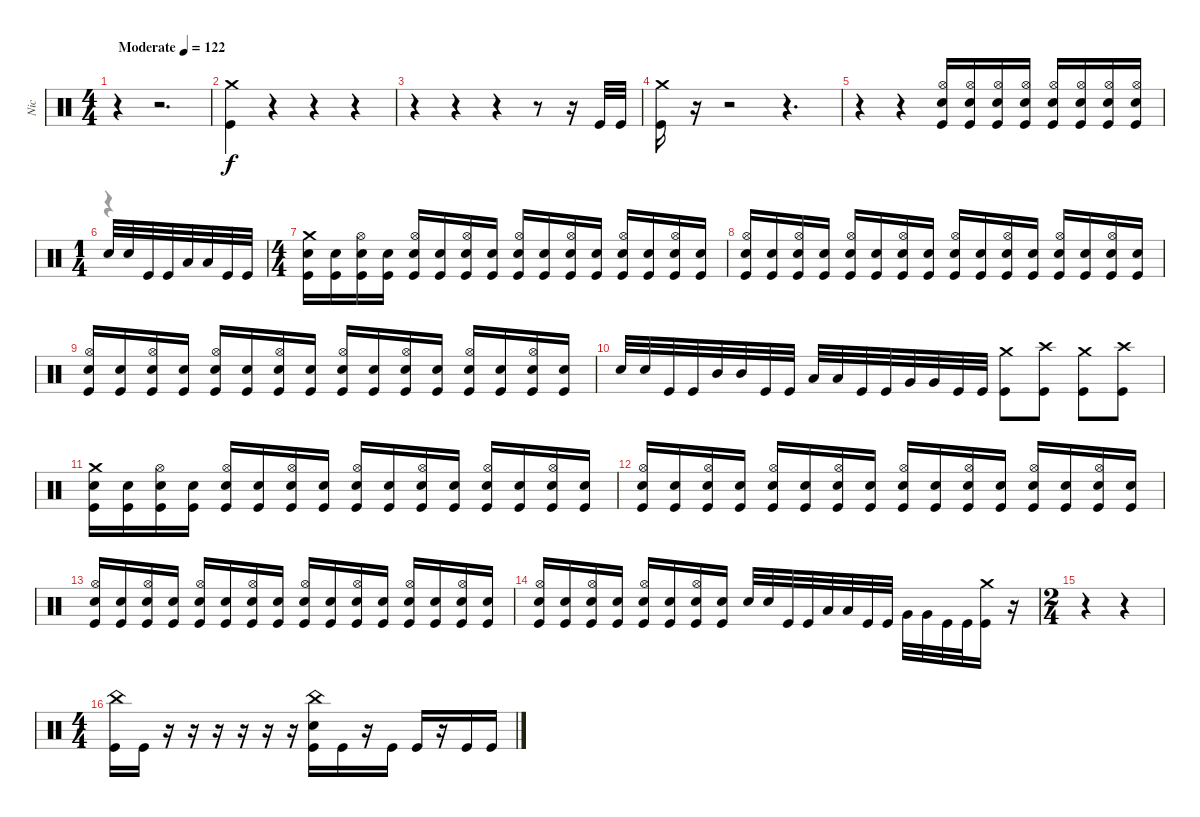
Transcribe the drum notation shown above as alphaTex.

\track ("Nic" "Nic") {instrument percussion}
\staff {score}
\articulation defaults
\voice
\ts (4 4)
\tempo (122 "Moderate")
\clef neutral
\ks c
r.4{dy f} r.2{d} |
("Crash medium (hit)" "Kick (hit)").4 r.4 r.4 r.4 |
r.4 r.4 r.4 r.8 r.16 "Kick (hit)".32 "Kick (hit)".32 |
("Crash medium (hit)" "Kick (hit)").16 r.16 r.2 r.4{d} |
r.4 r.4 ("Hi-Hat (open)" "Snare (hit) 2" "Kick (hit)").16 ("Hi-Hat (open)" "Snare (hit) 2" "Kick (hit)").16 ("Hi-Hat (open)" "Snare (hit) 2" "Kick (hit)").16 ("Hi-Hat (open)" "Snare (hit) 2" "Kick (hit)").16 ("Hi-Hat (open)" "Snare (hit) 2" "Kick (hit)").16 ("Hi-Hat (open)" "Snare (hit) 2" "Kick (hit)").16 ("Hi-Hat (open)" "Snare (hit) 2" "Kick (hit)").16 ("Hi-Hat (open)" "Snare (hit) 2" "Kick (hit)").16 |
\ts (1 4)
"Snare (hit) 2".32 "Snare (hit) 2".32 "Kick (hit)".32 "Kick (hit)".32 "Low Tom (hit)".32 "Low Tom (hit)".32 "Kick (hit)".32 "Kick (hit)".32 |
\ts (4 4)
("Snare (hit) 2" "Crash medium (hit)" "Kick (hit)").16 ("Snare (hit) 2" "Kick (hit)").16 ("Snare (hit) 2" "Hi-Hat (open)" "Kick (hit)").16 ("Snare (hit) 2" "Kick (hit)").16 ("Snare (hit) 2" "Hi-Hat (open)" "Kick (hit)").16 ("Snare (hit) 2" "Kick (hit)").16 ("Snare (hit) 2" "Hi-Hat (open)" "Kick (hit)").16 ("Snare (hit) 2" "Kick (hit)").16 ("Snare (hit) 2" "Hi-Hat (open)" "Kick (hit)").16 ("Snare (hit) 2" "Kick (hit)").16 ("Snare (hit) 2" "Hi-Hat (open)" "Kick (hit)").16 ("Snare (hit) 2" "Kick (hit)").16 ("Snare (hit) 2" "Hi-Hat (open)" "Kick (hit)").16 ("Snare (hit) 2" "Kick (hit)").16 ("Snare (hit) 2" "Hi-Hat (open)" "Kick (hit)").16 ("Snare (hit) 2" "Kick (hit)").16 |
("Snare (hit) 2" "Hi-Hat (open)" "Kick (hit)").16 ("Snare (hit) 2" "Kick (hit)").16 ("Snare (hit) 2" "Hi-Hat (open)" "Kick (hit)").16 ("Snare (hit) 2" "Kick (hit)").16 ("Snare (hit) 2" "Hi-Hat (open)" "Kick (hit)").16 ("Snare (hit) 2" "Kick (hit)").16 ("Snare (hit) 2" "Hi-Hat (open)" "Kick (hit)").16 ("Snare (hit) 2" "Kick (hit)").16 ("Snare (hit) 2" "Hi-Hat (open)" "Kick (hit)").16 ("Snare (hit) 2" "Kick (hit)").16 ("Snare (hit) 2" "Hi-Hat (open)" "Kick (hit)").16 ("Snare (hit) 2" "Kick (hit)").16 ("Snare (hit) 2" "Hi-Hat (open)" "Kick (hit)").16 ("Snare (hit) 2" "Kick (hit)").16 ("Snare (hit) 2" "Hi-Hat (open)" "Kick (hit)").16 ("Snare (hit) 2" "Kick (hit)").16 |
("Snare (hit) 2" "Hi-Hat (open)" "Kick (hit)").16 ("Snare (hit) 2" "Kick (hit)").16 ("Snare (hit) 2" "Hi-Hat (open)" "Kick (hit)").16 ("Snare (hit) 2" "Kick (hit)").16 ("Snare (hit) 2" "Hi-Hat (open)" "Kick (hit)").16 ("Snare (hit) 2" "Kick (hit)").16 ("Snare (hit) 2" "Hi-Hat (open)" "Kick (hit)").16 ("Snare (hit) 2" "Kick (hit)").16 ("Snare (hit) 2" "Hi-Hat (open)" "Kick (hit)").16 ("Snare (hit) 2" "Kick (hit)").16 ("Snare (hit) 2" "Hi-Hat (open)" "Kick (hit)").16 ("Snare (hit) 2" "Kick (hit)").16 ("Snare (hit) 2" "Hi-Hat (open)" "Kick (hit)").16 ("Snare (hit) 2" "Kick (hit)").16 ("Snare (hit) 2" "Hi-Hat (open)" "Kick (hit)").16 ("Snare (hit) 2" "Kick (hit)").16 |
"Snare (hit) 2".32 "Snare (hit) 2".32 "Kick (hit)".32 "Kick (hit)".32 "Mid Tom (hit)".32 "Mid Tom (hit)".32 "Kick (hit)".32 "Kick (hit)".32 "Low Tom (hit)".32 "Low Tom (hit)".32 "Kick (hit)".32 "Kick (hit)".32 "Very Low Tom (hit)".32 "Very Low Tom (hit)".32 "Kick (hit)".32 "Kick (hit)".32 ("Crash medium (hit)" "Kick (hit)").8 ("Crash high (hit)" "Kick (hit)").8 ("Crash medium (hit)" "Kick (hit)").8 ("Crash high (hit)" "Kick (hit)").8 |
("Snare (hit) 2" "Crash medium (hit)" "Kick (hit)").16 ("Snare (hit) 2" "Kick (hit)").16 ("Snare (hit) 2" "Hi-Hat (open)" "Kick (hit)").16 ("Snare (hit) 2" "Kick (hit)").16 ("Snare (hit) 2" "Hi-Hat (open)" "Kick (hit)").16 ("Snare (hit) 2" "Kick (hit)").16 ("Snare (hit) 2" "Hi-Hat (open)" "Kick (hit)").16 ("Snare (hit) 2" "Kick (hit)").16 ("Snare (hit) 2" "Hi-Hat (open)" "Kick (hit)").16 ("Snare (hit) 2" "Kick (hit)").16 ("Snare (hit) 2" "Hi-Hat (open)" "Kick (hit)").16 ("Snare (hit) 2" "Kick (hit)").16 ("Snare (hit) 2" "Hi-Hat (open)" "Kick (hit)").16 ("Snare (hit) 2" "Kick (hit)").16 ("Snare (hit) 2" "Hi-Hat (open)" "Kick (hit)").16 ("Snare (hit) 2" "Kick (hit)").16 |
("Snare (hit) 2" "Hi-Hat (open)" "Kick (hit)").16 ("Snare (hit) 2" "Kick (hit)").16 ("Snare (hit) 2" "Hi-Hat (open)" "Kick (hit)").16 ("Snare (hit) 2" "Kick (hit)").16 ("Snare (hit) 2" "Hi-Hat (open)" "Kick (hit)").16 ("Snare (hit) 2" "Kick (hit)").16 ("Snare (hit) 2" "Hi-Hat (open)" "Kick (hit)").16 ("Snare (hit) 2" "Kick (hit)").16 ("Snare (hit) 2" "Hi-Hat (open)" "Kick (hit)").16 ("Snare (hit) 2" "Kick (hit)").16 ("Snare (hit) 2" "Hi-Hat (open)" "Kick (hit)").16 ("Snare (hit) 2" "Kick (hit)").16 ("Snare (hit) 2" "Hi-Hat (open)" "Kick (hit)").16 ("Snare (hit) 2" "Kick (hit)").16 ("Snare (hit) 2" "Hi-Hat (open)" "Kick (hit)").16 ("Snare (hit) 2" "Kick (hit)").16 |
("Snare (hit) 2" "Hi-Hat (open)" "Kick (hit)").16 ("Snare (hit) 2" "Kick (hit)").16 ("Snare (hit) 2" "Hi-Hat (open)" "Kick (hit)").16 ("Snare (hit) 2" "Kick (hit)").16 ("Snare (hit) 2" "Hi-Hat (open)" "Kick (hit)").16 ("Snare (hit) 2" "Kick (hit)").16 ("Snare (hit) 2" "Hi-Hat (open)" "Kick (hit)").16 ("Snare (hit) 2" "Kick (hit)").16 ("Snare (hit) 2" "Hi-Hat (open)" "Kick (hit)").16 ("Snare (hit) 2" "Kick (hit)").16 ("Snare (hit) 2" "Hi-Hat (open)" "Kick (hit)").16 ("Snare (hit) 2" "Kick (hit)").16 ("Snare (hit) 2" "Hi-Hat (open)" "Kick (hit)").16 ("Snare (hit) 2" "Kick (hit)").16 ("Snare (hit) 2" "Hi-Hat (open)" "Kick (hit)").16 ("Snare (hit) 2" "Kick (hit)").16 |
("Snare (hit) 2" "Hi-Hat (open)" "Kick (hit)").16 ("Snare (hit) 2" "Kick (hit)").16 ("Snare (hit) 2" "Hi-Hat (open)" "Kick (hit)").16 ("Snare (hit) 2" "Kick (hit)").16 ("Snare (hit) 2" "Hi-Hat (open)" "Kick (hit)").16 ("Snare (hit) 2" "Kick (hit)").16 ("Snare (hit) 2" "Hi-Hat (open)" "Kick (hit)").16 ("Snare (hit) 2" "Kick (hit)").16 "Snare (hit) 2".32 "Snare (hit) 2".32 "Kick (hit)".32 "Kick (hit)".32 "Low Tom (hit)".32 "Low Tom (hit)".32 "Kick (hit)".32 "Kick (hit)".32 "Very Low Tom (hit)".32 "Very Low Tom (hit)".32 "Kick (hit)".32 "Kick (hit)".32 ("Crash medium (hit)" "Kick (hit)").16 r.16 |
\ts (2 4)
r.4 r.4 |
\ts (4 4)
("China (hit)" "Kick (hit)").16 "Kick (hit)".16 r.16 r.16 r.16 r.16 r.16 r.16 ("China (hit)" "Snare (hit) 2" "Kick (hit)").16 "Kick (hit)".16 r.16 "Kick (hit)".16 "Kick (hit)".16 r.16 "Kick (hit)".16 "Kick (hit)".16
\voice
\clef neutral
\ottava regular
\simile none
\ks c
|
|
|
|
|
r.4 |
|
|
|
|
|
|
|
|
|
